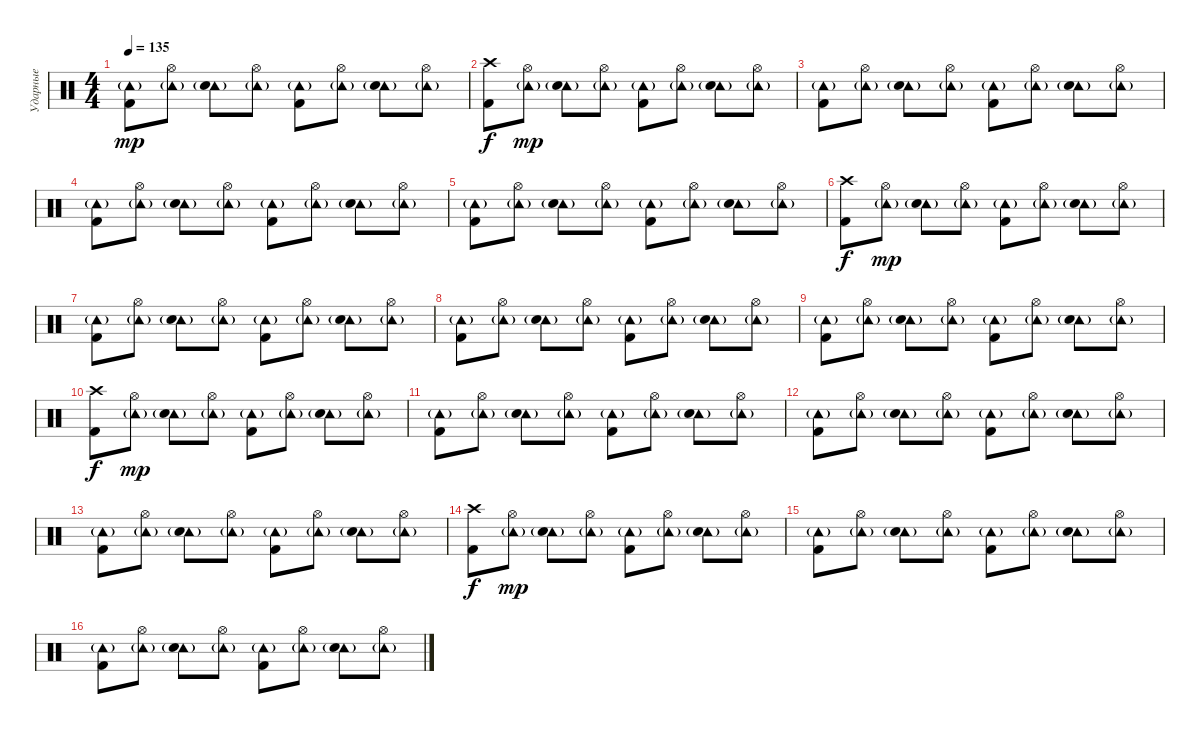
\track ("Ударные" "Ударные") {instrument percussion}
\staff {score}
\articulation defaults
\ts (4 4)
\tempo 135
\clef neutral
\ks c
("Tambourine (hit)"{g} "Kick (hit) 2").8{dy mp} ("Tambourine (hit)"{g} "Hi-Hat (open)").8 ("Tambourine (hit)"{g} "Electric Snare (hit)").8 ("Tambourine (hit)"{g} "Hi-Hat (open)").8 ("Tambourine (hit)"{g} "Kick (hit) 2").8 ("Tambourine (hit)"{g} "Hi-Hat (open)").8 ("Tambourine (hit)"{g} "Electric Snare (hit)").8 ("Tambourine (hit)"{g} "Hi-Hat (open)").8 |
("Crash high (hit)" "Kick (hit) 2").8{dy f} ("Tambourine (hit)"{g} "Hi-Hat (open)").8{dy mp} ("Tambourine (hit)"{g} "Electric Snare (hit)").8 ("Tambourine (hit)"{g} "Hi-Hat (open)").8 ("Tambourine (hit)"{g} "Kick (hit) 2").8 ("Tambourine (hit)"{g} "Hi-Hat (open)").8 ("Tambourine (hit)"{g} "Electric Snare (hit)").8 ("Tambourine (hit)"{g} "Hi-Hat (open)").8 |
("Tambourine (hit)"{g} "Kick (hit) 2").8 ("Tambourine (hit)"{g} "Hi-Hat (open)").8 ("Tambourine (hit)"{g} "Electric Snare (hit)").8 ("Tambourine (hit)"{g} "Hi-Hat (open)").8 ("Tambourine (hit)"{g} "Kick (hit) 2").8 ("Tambourine (hit)"{g} "Hi-Hat (open)").8 ("Tambourine (hit)"{g} "Electric Snare (hit)").8 ("Tambourine (hit)"{g} "Hi-Hat (open)").8 |
("Tambourine (hit)"{g} "Kick (hit) 2").8 ("Tambourine (hit)"{g} "Hi-Hat (open)").8 ("Tambourine (hit)"{g} "Electric Snare (hit)").8 ("Tambourine (hit)"{g} "Hi-Hat (open)").8 ("Tambourine (hit)"{g} "Kick (hit) 2").8 ("Tambourine (hit)"{g} "Hi-Hat (open)").8 ("Tambourine (hit)"{g} "Electric Snare (hit)").8 ("Tambourine (hit)"{g} "Hi-Hat (open)").8 |
("Tambourine (hit)"{g} "Kick (hit) 2").8 ("Tambourine (hit)"{g} "Hi-Hat (open)").8 ("Tambourine (hit)"{g} "Electric Snare (hit)").8 ("Tambourine (hit)"{g} "Hi-Hat (open)").8 ("Tambourine (hit)"{g} "Kick (hit) 2").8 ("Tambourine (hit)"{g} "Hi-Hat (open)").8 ("Tambourine (hit)"{g} "Electric Snare (hit)").8 ("Tambourine (hit)"{g} "Hi-Hat (open)").8 |
("Crash high (hit)" "Kick (hit) 2").8{dy f} ("Tambourine (hit)"{g} "Hi-Hat (open)").8{dy mp} ("Tambourine (hit)"{g} "Electric Snare (hit)").8 ("Tambourine (hit)"{g} "Hi-Hat (open)").8 ("Tambourine (hit)"{g} "Kick (hit) 2").8 ("Tambourine (hit)"{g} "Hi-Hat (open)").8 ("Tambourine (hit)"{g} "Electric Snare (hit)").8 ("Tambourine (hit)"{g} "Hi-Hat (open)").8 |
("Tambourine (hit)"{g} "Kick (hit) 2").8 ("Tambourine (hit)"{g} "Hi-Hat (open)").8 ("Tambourine (hit)"{g} "Electric Snare (hit)").8 ("Tambourine (hit)"{g} "Hi-Hat (open)").8 ("Tambourine (hit)"{g} "Kick (hit) 2").8 ("Tambourine (hit)"{g} "Hi-Hat (open)").8 ("Tambourine (hit)"{g} "Electric Snare (hit)").8 ("Tambourine (hit)"{g} "Hi-Hat (open)").8 |
("Tambourine (hit)"{g} "Kick (hit) 2").8 ("Tambourine (hit)"{g} "Hi-Hat (open)").8 ("Tambourine (hit)"{g} "Electric Snare (hit)").8 ("Tambourine (hit)"{g} "Hi-Hat (open)").8 ("Tambourine (hit)"{g} "Kick (hit) 2").8 ("Tambourine (hit)"{g} "Hi-Hat (open)").8 ("Tambourine (hit)"{g} "Electric Snare (hit)").8 ("Tambourine (hit)"{g} "Hi-Hat (open)").8 |
("Tambourine (hit)"{g} "Kick (hit) 2").8 ("Tambourine (hit)"{g} "Hi-Hat (open)").8 ("Tambourine (hit)"{g} "Electric Snare (hit)").8 ("Tambourine (hit)"{g} "Hi-Hat (open)").8 ("Tambourine (hit)"{g} "Kick (hit) 2").8 ("Tambourine (hit)"{g} "Hi-Hat (open)").8 ("Tambourine (hit)"{g} "Electric Snare (hit)").8 ("Tambourine (hit)"{g} "Hi-Hat (open)").8 |
("Crash high (hit)" "Kick (hit) 2").8{dy f} ("Tambourine (hit)"{g} "Hi-Hat (open)").8{dy mp} ("Tambourine (hit)"{g} "Electric Snare (hit)").8 ("Tambourine (hit)"{g} "Hi-Hat (open)").8 ("Tambourine (hit)"{g} "Kick (hit) 2").8 ("Tambourine (hit)"{g} "Hi-Hat (open)").8 ("Tambourine (hit)"{g} "Electric Snare (hit)").8 ("Tambourine (hit)"{g} "Hi-Hat (open)").8 |
("Tambourine (hit)"{g} "Kick (hit) 2").8 ("Tambourine (hit)"{g} "Hi-Hat (open)").8 ("Tambourine (hit)"{g} "Electric Snare (hit)").8 ("Tambourine (hit)"{g} "Hi-Hat (open)").8 ("Tambourine (hit)"{g} "Kick (hit) 2").8 ("Tambourine (hit)"{g} "Hi-Hat (open)").8 ("Tambourine (hit)"{g} "Electric Snare (hit)").8 ("Tambourine (hit)"{g} "Hi-Hat (open)").8 |
("Tambourine (hit)"{g} "Kick (hit) 2").8 ("Tambourine (hit)"{g} "Hi-Hat (open)").8 ("Tambourine (hit)"{g} "Electric Snare (hit)").8 ("Tambourine (hit)"{g} "Hi-Hat (open)").8 ("Tambourine (hit)"{g} "Kick (hit) 2").8 ("Tambourine (hit)"{g} "Hi-Hat (open)").8 ("Tambourine (hit)"{g} "Electric Snare (hit)").8 ("Tambourine (hit)"{g} "Hi-Hat (open)").8 |
("Tambourine (hit)"{g} "Kick (hit) 2").8 ("Tambourine (hit)"{g} "Hi-Hat (open)").8 ("Tambourine (hit)"{g} "Electric Snare (hit)").8 ("Tambourine (hit)"{g} "Hi-Hat (open)").8 ("Tambourine (hit)"{g} "Kick (hit) 2").8 ("Tambourine (hit)"{g} "Hi-Hat (open)").8 ("Tambourine (hit)"{g} "Electric Snare (hit)").8 ("Tambourine (hit)"{g} "Hi-Hat (open)").8 |
("Crash high (hit)" "Kick (hit) 2").8{dy f} ("Tambourine (hit)"{g} "Hi-Hat (open)").8{dy mp} ("Tambourine (hit)"{g} "Electric Snare (hit)").8 ("Tambourine (hit)"{g} "Hi-Hat (open)").8 ("Tambourine (hit)"{g} "Kick (hit) 2").8 ("Tambourine (hit)"{g} "Hi-Hat (open)").8 ("Tambourine (hit)"{g} "Electric Snare (hit)").8 ("Tambourine (hit)"{g} "Hi-Hat (open)").8 |
("Tambourine (hit)"{g} "Kick (hit) 2").8 ("Tambourine (hit)"{g} "Hi-Hat (open)").8 ("Tambourine (hit)"{g} "Electric Snare (hit)").8 ("Tambourine (hit)"{g} "Hi-Hat (open)").8 ("Tambourine (hit)"{g} "Kick (hit) 2").8 ("Tambourine (hit)"{g} "Hi-Hat (open)").8 ("Tambourine (hit)"{g} "Electric Snare (hit)").8 ("Tambourine (hit)"{g} "Hi-Hat (open)").8 |
("Tambourine (hit)"{g} "Kick (hit) 2").8 ("Tambourine (hit)"{g} "Hi-Hat (open)").8 ("Tambourine (hit)"{g} "Electric Snare (hit)").8 ("Tambourine (hit)"{g} "Hi-Hat (open)").8 ("Tambourine (hit)"{g} "Kick (hit) 2").8 ("Tambourine (hit)"{g} "Hi-Hat (open)").8 ("Tambourine (hit)"{g} "Electric Snare (hit)").8 ("Tambourine (hit)"{g} "Hi-Hat (open)").8
